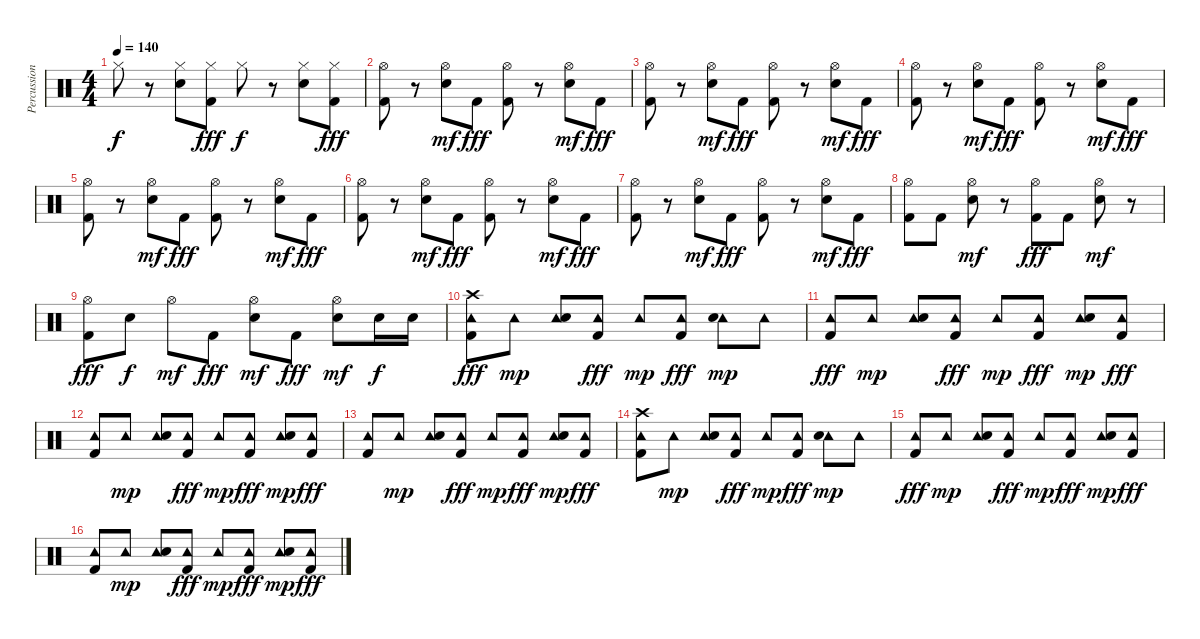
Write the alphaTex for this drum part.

\track ("Percussion" "Percussion") {instrument percussion}
\staff {score}
\articulation defaults
\ts (4 4)
\tempo 140
\clef neutral
\ks c "Hi-Hat (closed)".8{dy f}
r.8 ("Hi-Hat (closed)" "Electric Snare (hit)").8 ("Hi-Hat (closed)" "Kick (hit) 2").8{dy fff} "Hi-Hat (closed)".8{dy f} r.8 ("Hi-Hat (closed)" "Electric Snare (hit)").8 ("Hi-Hat (closed)" "Kick (hit) 2").8{dy fff} |
("Hi-Hat (open)" "Kick (hit) 2").8 r.8 ("Hi-Hat (open)" "Electric Snare (hit)").8{dy mf} "Kick (hit) 2".8{dy fff} ("Hi-Hat (open)" "Kick (hit) 2").8 r.8 ("Hi-Hat (open)" "Electric Snare (hit)").8{dy mf} "Kick (hit) 2".8{dy fff} |
("Hi-Hat (open)" "Kick (hit) 2").8 r.8 ("Hi-Hat (open)" "Electric Snare (hit)").8{dy mf} "Kick (hit) 2".8{dy fff} ("Hi-Hat (open)" "Kick (hit) 2").8 r.8 ("Hi-Hat (open)" "Electric Snare (hit)").8{dy mf} "Kick (hit) 2".8{dy fff} |
("Hi-Hat (open)" "Kick (hit) 2").8 r.8 ("Hi-Hat (open)" "Electric Snare (hit)").8{dy mf} "Kick (hit) 2".8{dy fff} ("Hi-Hat (open)" "Kick (hit) 2").8 r.8 ("Hi-Hat (open)" "Electric Snare (hit)").8{dy mf} "Kick (hit) 2".8{dy fff} |
("Hi-Hat (open)" "Kick (hit) 2").8 r.8 ("Hi-Hat (open)" "Electric Snare (hit)").8{dy mf} "Kick (hit) 2".8{dy fff} ("Hi-Hat (open)" "Kick (hit) 2").8 r.8 ("Hi-Hat (open)" "Electric Snare (hit)").8{dy mf} "Kick (hit) 2".8{dy fff} |
("Hi-Hat (open)" "Kick (hit) 2").8 r.8 ("Hi-Hat (open)" "Electric Snare (hit)").8{dy mf} "Kick (hit) 2".8{dy fff} ("Hi-Hat (open)" "Kick (hit) 2").8 r.8 ("Hi-Hat (open)" "Electric Snare (hit)").8{dy mf} "Kick (hit) 2".8{dy fff} |
("Hi-Hat (open)" "Kick (hit) 2").8 r.8 ("Hi-Hat (open)" "Electric Snare (hit)").8{dy mf} "Kick (hit) 2".8{dy fff} ("Hi-Hat (open)" "Kick (hit) 2").8 r.8 ("Hi-Hat (open)" "Electric Snare (hit)").8{dy mf} "Kick (hit) 2".8{dy fff} |
("Hi-Hat (open)" "Kick (hit) 2").8 "Kick (hit) 2".8 ("Hi-Hat (open)" "Electric Snare (hit)").8{dy mf} r.8 ("Hi-Hat (open)" "Kick (hit) 2").8{dy fff} "Kick (hit) 2".8 ("Hi-Hat (open)" "Electric Snare (hit)").8{dy mf} r.8 |
("Hi-Hat (open)" "Kick (hit) 2").8{dy fff} "Electric Snare (hit)".8{dy f} "Hi-Hat (open)".8{dy mf} "Kick (hit) 2".8{dy fff} ("Hi-Hat (open)" "Electric Snare (hit)").8{dy mf} "Kick (hit) 2".8{dy fff} ("Hi-Hat (open)" "Electric Snare (hit)").8{dy mf} "Electric Snare (hit)".16{dy f} "Electric Snare (hit)".16 |
("Tambourine (hit)" "Kick (hit) 2" "Crash high (hit)").8{dy fff} "Tambourine (hit)".8{dy mp} ("Tambourine (hit)" "Electric Snare (hit)").8 ("Tambourine (hit)" "Kick (hit) 2").8{dy fff} "Tambourine (hit)".8{dy mp} ("Tambourine (hit)" "Kick (hit) 2").8{dy fff} ("Tambourine (hit)" "Electric Snare (hit)").8{dy mp} "Tambourine (hit)".8 |
("Tambourine (hit)" "Kick (hit) 2").8{dy fff} "Tambourine (hit)".8{dy mp} ("Tambourine (hit)" "Electric Snare (hit)").8 ("Tambourine (hit)" "Kick (hit) 2").8{dy fff} "Tambourine (hit)".8{dy mp} ("Tambourine (hit)" "Kick (hit) 2").8{dy fff} ("Tambourine (hit)" "Electric Snare (hit)").8{dy mp} ("Tambourine (hit)" "Kick (hit) 2").8{dy fff} |
("Tambourine (hit)" "Kick (hit) 2").8 "Tambourine (hit)".8{dy mp} ("Tambourine (hit)" "Electric Snare (hit)").8 ("Tambourine (hit)" "Kick (hit) 2").8{dy fff} "Tambourine (hit)".8{dy mp} ("Tambourine (hit)" "Kick (hit) 2").8{dy fff} ("Tambourine (hit)" "Electric Snare (hit)").8{dy mp} ("Tambourine (hit)" "Kick (hit) 2").8{dy fff} |
("Tambourine (hit)" "Kick (hit) 2").8 "Tambourine (hit)".8{dy mp} ("Tambourine (hit)" "Electric Snare (hit)").8 ("Tambourine (hit)" "Kick (hit) 2").8{dy fff} "Tambourine (hit)".8{dy mp} ("Tambourine (hit)" "Kick (hit) 2").8{dy fff} ("Tambourine (hit)" "Electric Snare (hit)").8{dy mp} ("Tambourine (hit)" "Kick (hit) 2").8{dy fff} |
("Tambourine (hit)" "Kick (hit) 2" "Crash high (hit)").8 "Tambourine (hit)".8{dy mp} ("Tambourine (hit)" "Electric Snare (hit)").8 ("Tambourine (hit)" "Kick (hit) 2").8{dy fff} "Tambourine (hit)".8{dy mp} ("Tambourine (hit)" "Kick (hit) 2").8{dy fff} ("Tambourine (hit)" "Electric Snare (hit)").8{dy mp} "Tambourine (hit)".8 |
("Tambourine (hit)" "Kick (hit) 2").8{dy fff} "Tambourine (hit)".8{dy mp} ("Tambourine (hit)" "Electric Snare (hit)").8 ("Tambourine (hit)" "Kick (hit) 2").8{dy fff} "Tambourine (hit)".8{dy mp} ("Tambourine (hit)" "Kick (hit) 2").8{dy fff} ("Tambourine (hit)" "Electric Snare (hit)").8{dy mp} ("Tambourine (hit)" "Kick (hit) 2").8{dy fff} |
("Tambourine (hit)" "Kick (hit) 2").8 "Tambourine (hit)".8{dy mp} ("Tambourine (hit)" "Electric Snare (hit)").8 ("Tambourine (hit)" "Kick (hit) 2").8{dy fff} "Tambourine (hit)".8{dy mp} ("Tambourine (hit)" "Kick (hit) 2").8{dy fff} ("Tambourine (hit)" "Electric Snare (hit)").8{dy mp} ("Tambourine (hit)" "Kick (hit) 2").8{dy fff}
